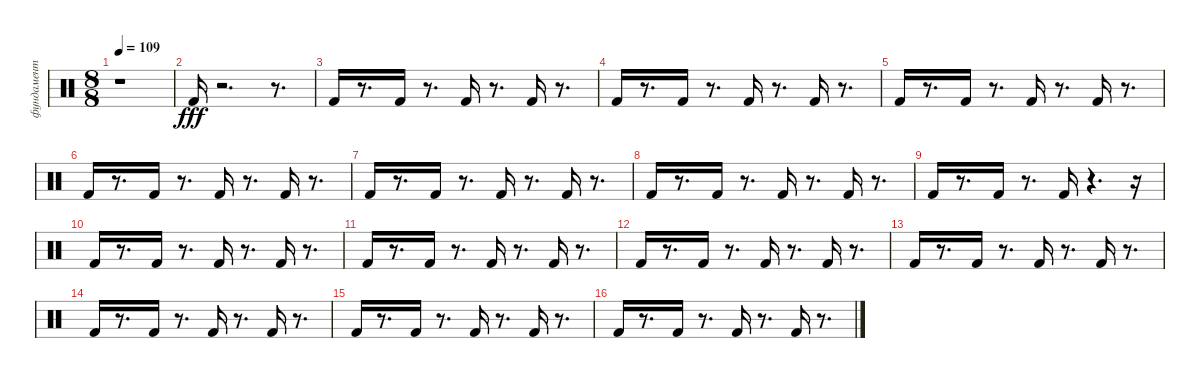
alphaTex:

\track ("фундамент" "фундамент") {instrument percussion}
\staff {score}
\articulation defaults
\ts (8 8)
\tempo 109
\clef neutral
\ks c
r.1{dy fff} |
"Kick (hit) 2".16 r.2{d} r.8{d} |
"Kick (hit) 2".16 r.8{d} "Kick (hit) 2".16 r.8{d} "Kick (hit) 2".16 r.8{d} "Kick (hit) 2".16 r.8{d} |
"Kick (hit) 2".16 r.8{d} "Kick (hit) 2".16 r.8{d} "Kick (hit) 2".16 r.8{d} "Kick (hit) 2".16 r.8{d} |
"Kick (hit) 2".16 r.8{d} "Kick (hit) 2".16 r.8{d} "Kick (hit) 2".16 r.8{d} "Kick (hit) 2".16 r.8{d} |
"Kick (hit) 2".16 r.8{d} "Kick (hit) 2".16 r.8{d} "Kick (hit) 2".16 r.8{d} "Kick (hit) 2".16 r.8{d} |
"Kick (hit) 2".16 r.8{d} "Kick (hit) 2".16 r.8{d} "Kick (hit) 2".16 r.8{d} "Kick (hit) 2".16 r.8{d} |
"Kick (hit) 2".16 r.8{d} "Kick (hit) 2".16 r.8{d} "Kick (hit) 2".16 r.8{d} "Kick (hit) 2".16 r.8{d} |
"Kick (hit) 2".16 r.8{d} "Kick (hit) 2".16 r.8{d} "Kick (hit) 2".16 r.4{d} r.16 |
"Kick (hit) 2".16 r.8{d} "Kick (hit) 2".16 r.8{d} "Kick (hit) 2".16 r.8{d} "Kick (hit) 2".16 r.8{d} |
"Kick (hit) 2".16 r.8{d} "Kick (hit) 2".16 r.8{d} "Kick (hit) 2".16 r.8{d} "Kick (hit) 2".16 r.8{d} |
"Kick (hit) 2".16 r.8{d} "Kick (hit) 2".16 r.8{d} "Kick (hit) 2".16 r.8{d} "Kick (hit) 2".16 r.8{d} |
"Kick (hit) 2".16 r.8{d} "Kick (hit) 2".16 r.8{d} "Kick (hit) 2".16 r.8{d} "Kick (hit) 2".16 r.8{d} |
"Kick (hit) 2".16 r.8{d} "Kick (hit) 2".16 r.8{d} "Kick (hit) 2".16 r.8{d} "Kick (hit) 2".16 r.8{d} |
"Kick (hit) 2".16 r.8{d} "Kick (hit) 2".16 r.8{d} "Kick (hit) 2".16 r.8{d} "Kick (hit) 2".16 r.8{d} |
"Kick (hit) 2".16 r.8{d} "Kick (hit) 2".16 r.8{d} "Kick (hit) 2".16 r.8{d} "Kick (hit) 2".16 r.8{d}
